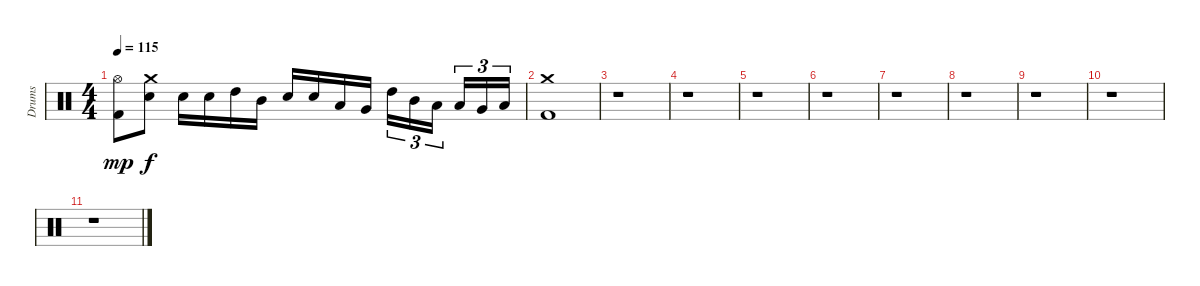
\track ("Drums" "Drums") {instrument percussion}
\staff {score}
\articulation defaults
\ts (4 4)
\tempo 115
\clef neutral
\ks c
("Hi-Hat (open)" "Kick (hit) 2").8{dy mp} ("Crash medium (hit)" "Snare (hit) 2").8{dy f} "Snare (hit) 2".16 "Snare (hit) 2".16 "High Tom (hit)".16 "Mid Tom (hit)".16 "Snare (hit) 2".16 "Snare (hit) 2".16 "Low Tom (hit)".16 "Very Low Tom (hit)".16 "High Tom (hit)".16{tu (3 2)} "Mid Tom (hit)".16{tu (3 2)} "Low Tom (hit)".16{tu (3 2) beam splitsecondary} "Low Tom (hit)".16{tu (3 2)} "Very Low Tom (hit)".16{tu (3 2)} "Low Floor Tom (hit)".16{tu (3 2)} |
("Crash medium (hit)" "Kick (hit) 2").1 |
r.1 |
r.1 |
r.1 |
r.1 |
r.1 |
r.1 |
r.1 |
r.1 |
r.1
